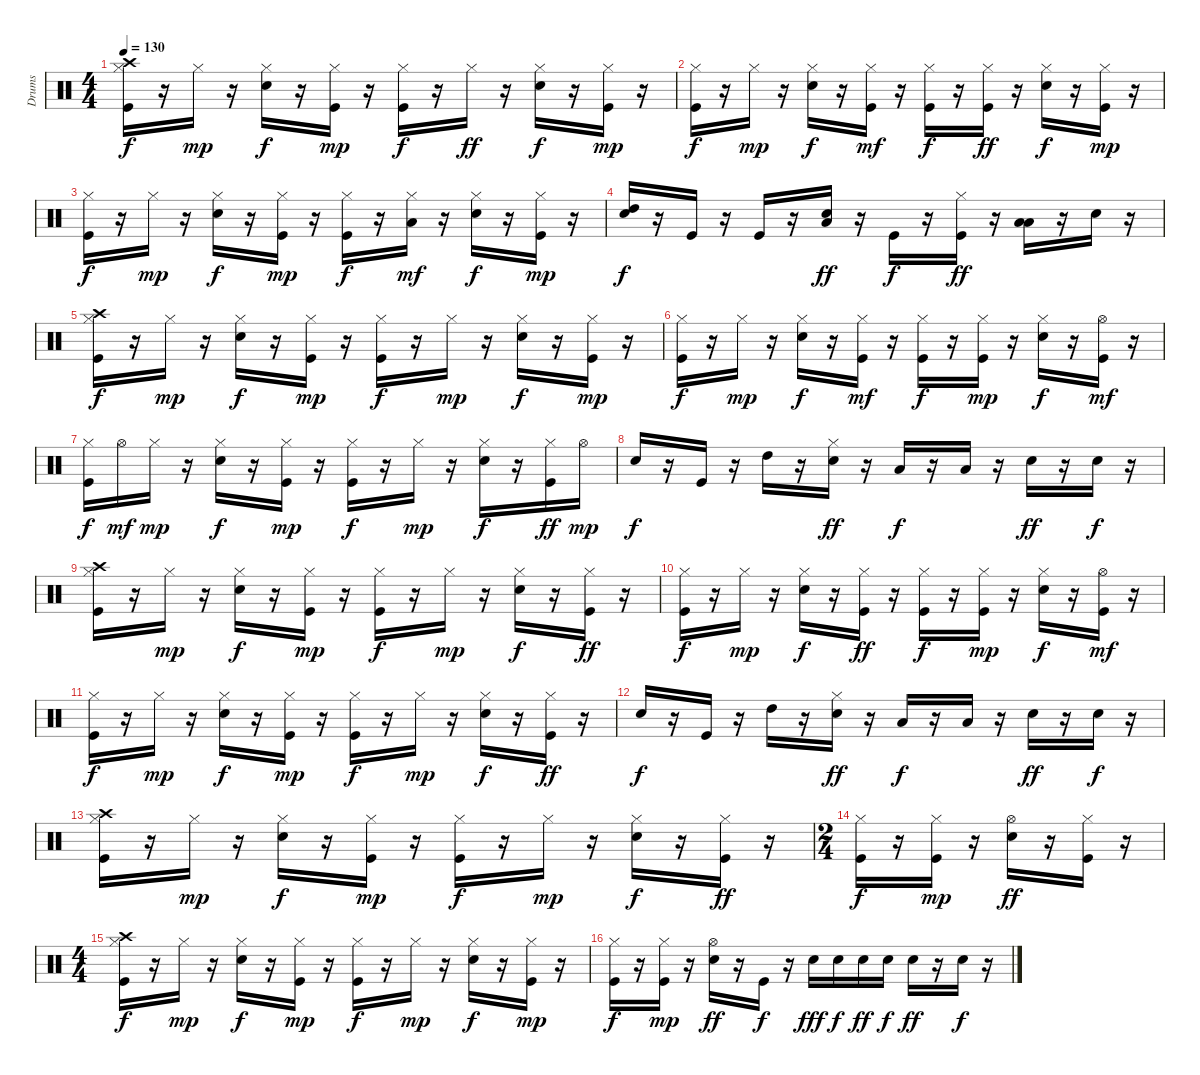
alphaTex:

\track ("Drums" "Drums") {instrument percussion}
\staff {score}
\articulation defaults
\ts (4 4)
\tempo 130
\clef neutral
\ks c
("Kick (hit)" "Hi-Hat (closed)" "Crash high (hit)").16{dy f} r.16 "Hi-Hat (closed)".16{dy mp} r.16 ("Snare (hit) 2" "Hi-Hat (closed)").16{dy f} r.16 ("Kick (hit)" "Hi-Hat (closed)").16{dy mp} r.16 ("Kick (hit)" "Hi-Hat (closed)").16{dy f} r.16 "Hi-Hat (closed)".16{dy ff} r.16 ("Snare (hit) 2" "Hi-Hat (closed)").16{dy f} r.16 ("Kick (hit)" "Hi-Hat (closed)").16{dy mp} r.16 |
("Kick (hit)" "Hi-Hat (closed)").16{dy f} r.16 "Hi-Hat (closed)".16{dy mp} r.16 ("Snare (hit) 2" "Hi-Hat (closed)").16{dy f} r.16 ("Kick (hit)" "Hi-Hat (closed)").16{dy mf} r.16 ("Kick (hit)" "Hi-Hat (closed)").16{dy f} r.16 ("Kick (hit)" "Hi-Hat (closed)").16{dy ff} r.16 ("Snare (hit) 2" "Hi-Hat (closed)").16{dy f} r.16 ("Kick (hit)" "Hi-Hat (closed)").16{dy mp} r.16 |
("Kick (hit)" "Hi-Hat (closed)").16{dy f} r.16 "Hi-Hat (closed)".16{dy mp} r.16 ("Snare (hit) 2" "Hi-Hat (closed)").16{dy f} r.16 ("Kick (hit)" "Hi-Hat (closed)").16{dy mp} r.16 ("Kick (hit)" "Hi-Hat (closed)").16{dy f} r.16 ("Hi-Hat (closed)" "Low Floor Tom (hit)").16{dy mf} r.16 ("Snare (hit) 2" "Hi-Hat (closed)").16{dy f} r.16 ("Kick (hit)" "Hi-Hat (closed)").16{dy mp} r.16 |
("Snare (hit) 2" "High Tom (hit)").16{dy f} r.16 "Kick (hit)".16 r.16 "Kick (hit)".16 r.16 ("Snare (hit) 2" "Low Tom (hit)").16{dy ff} r.16 "Kick (hit)".16{dy f} r.16 ("Kick (hit)" "Hi-Hat (closed)").16{dy ff} r.16 ("Low Floor Tom (hit)" "Low Tom (hit)").16 r.16 "Snare (hit) 2".16 r.16 |
("Kick (hit)" "Hi-Hat (closed)" "Crash high (hit)").16{dy f} r.16 "Hi-Hat (closed)".16{dy mp} r.16 ("Snare (hit) 2" "Hi-Hat (closed)").16{dy f} r.16 ("Kick (hit)" "Hi-Hat (closed)").16{dy mp} r.16 ("Kick (hit)" "Hi-Hat (closed)").16{dy f} r.16 "Hi-Hat (closed)".16{dy mp} r.16 ("Snare (hit) 2" "Hi-Hat (closed)").16{dy f} r.16 ("Kick (hit)" "Hi-Hat (closed)").16{dy mp} r.16 |
("Kick (hit)" "Hi-Hat (closed)").16{dy f} r.16 "Hi-Hat (closed)".16{dy mp} r.16 ("Snare (hit) 2" "Hi-Hat (closed)").16{dy f} r.16 ("Kick (hit)" "Hi-Hat (closed)").16{dy mf} r.16 ("Kick (hit)" "Hi-Hat (closed)").16{dy f} r.16 ("Kick (hit)" "Hi-Hat (closed)").16{dy mp} r.16 ("Snare (hit) 2" "Hi-Hat (closed)").16{dy f} r.16 ("Kick (hit)" "Hi-Hat (open)").16{dy mf} r.16 |
("Kick (hit)" "Hi-Hat (closed)").16{dy f} "Hi-Hat (open)".16{dy mf} "Hi-Hat (closed)".16{dy mp} r.16 ("Snare (hit) 2" "Hi-Hat (closed)").16{dy f} r.16 ("Kick (hit)" "Hi-Hat (closed)").16{dy mp} r.16 ("Kick (hit)" "Hi-Hat (closed)").16{dy f} r.16 "Hi-Hat (closed)".16{dy mp} r.16 ("Snare (hit) 2" "Hi-Hat (closed)").16{dy f} r.16 ("Kick (hit)" "Hi-Hat (closed)").16{dy ff} "Hi-Hat (open)".16{dy mp} |
"Snare (hit) 2".16{dy f} r.16 "Kick (hit)".16 r.16 "High Tom (hit)".16 r.16 ("Snare (hit) 2" "Hi-Hat (closed)").16{dy ff} r.16 "Low Tom (hit)".16{dy f} r.16 "Low Tom (hit)".16 r.16 "Snare (hit) 2".16{dy ff} r.16 "Snare (hit) 2".16{dy f} r.16 |
("Kick (hit)" "Hi-Hat (closed)" "Crash high (hit)").16 r.16 "Hi-Hat (closed)".16{dy mp} r.16 ("Snare (hit) 2" "Hi-Hat (closed)").16{dy f} r.16 ("Kick (hit)" "Hi-Hat (closed)").16{dy mp} r.16 ("Kick (hit)" "Hi-Hat (closed)").16{dy f} r.16 "Hi-Hat (closed)".16{dy mp} r.16 ("Snare (hit) 2" "Hi-Hat (closed)").16{dy f} r.16 ("Kick (hit)" "Hi-Hat (closed)").16{dy ff} r.16 |
("Kick (hit)" "Hi-Hat (closed)").16{dy f} r.16 "Hi-Hat (closed)".16{dy mp} r.16 ("Snare (hit) 2" "Hi-Hat (closed)").16{dy f} r.16 ("Kick (hit)" "Hi-Hat (closed)").16{dy ff} r.16 ("Kick (hit)" "Hi-Hat (closed)").16{dy f} r.16 ("Kick (hit)" "Hi-Hat (closed)").16{dy mp} r.16 ("Snare (hit) 2" "Hi-Hat (closed)").16{dy f} r.16 ("Kick (hit)" "Hi-Hat (open)").16{dy mf} r.16 |
("Kick (hit)" "Hi-Hat (closed)").16{dy f} r.16 "Hi-Hat (closed)".16{dy mp} r.16 ("Snare (hit) 2" "Hi-Hat (closed)").16{dy f} r.16 ("Kick (hit)" "Hi-Hat (closed)").16{dy mp} r.16 ("Kick (hit)" "Hi-Hat (closed)").16{dy f} r.16 "Hi-Hat (closed)".16{dy mp} r.16 ("Snare (hit) 2" "Hi-Hat (closed)").16{dy f} r.16 ("Kick (hit)" "Hi-Hat (closed)").16{dy ff} r.16 |
"Snare (hit) 2".16{dy f} r.16 "Kick (hit)".16 r.16 "High Tom (hit)".16 r.16 ("Snare (hit) 2" "Hi-Hat (closed)").16{dy ff} r.16 "Low Tom (hit)".16{dy f} r.16 "Low Tom (hit)".16 r.16 "Snare (hit) 2".16{dy ff} r.16 "Snare (hit) 2".16{dy f} r.16 |
("Kick (hit)" "Hi-Hat (closed)" "Crash high (hit)").16 r.16 "Hi-Hat (closed)".16{dy mp} r.16 ("Snare (hit) 2" "Hi-Hat (closed)").16{dy f} r.16 ("Kick (hit)" "Hi-Hat (closed)").16{dy mp} r.16 ("Kick (hit)" "Hi-Hat (closed)").16{dy f} r.16 "Hi-Hat (closed)".16{dy mp} r.16 ("Snare (hit) 2" "Hi-Hat (closed)").16{dy f} r.16 ("Kick (hit)" "Hi-Hat (closed)").16{dy ff} r.16 |
\ts (2 4)
("Kick (hit)" "Hi-Hat (closed)").16{dy f} r.16 ("Kick (hit)" "Hi-Hat (closed)").16{dy mp} r.16 ("Snare (hit) 2" "Hi-Hat (open)").16{dy ff} r.16 ("Kick (hit)" "Hi-Hat (closed)").16 r.16 |
\ts (4 4)
("Kick (hit)" "Hi-Hat (closed)" "Crash high (hit)").16{dy f} r.16 "Hi-Hat (closed)".16{dy mp} r.16 ("Snare (hit) 2" "Hi-Hat (closed)").16{dy f} r.16 ("Kick (hit)" "Hi-Hat (closed)").16{dy mp} r.16 ("Kick (hit)" "Hi-Hat (closed)").16{dy f} r.16 "Hi-Hat (closed)".16{dy mp} r.16 ("Snare (hit) 2" "Hi-Hat (closed)").16{dy f} r.16 ("Kick (hit)" "Hi-Hat (closed)").16{dy mp} r.16 |
("Kick (hit)" "Hi-Hat (closed)").16{dy f} r.16 ("Kick (hit)" "Hi-Hat (closed)").16{dy mp} r.16 ("Snare (hit) 2" "Hi-Hat (open)").16{dy ff} r.16 "Kick (hit)".16{dy f} r.16 "Snare (hit) 2".16{dy fff} "Snare (hit) 2".16{dy f} "Snare (hit) 2".16{dy ff} "Snare (hit) 2".16{dy f} "Snare (hit) 2".16{dy ff} r.16 "Snare (hit) 2".16{dy f} r.16
